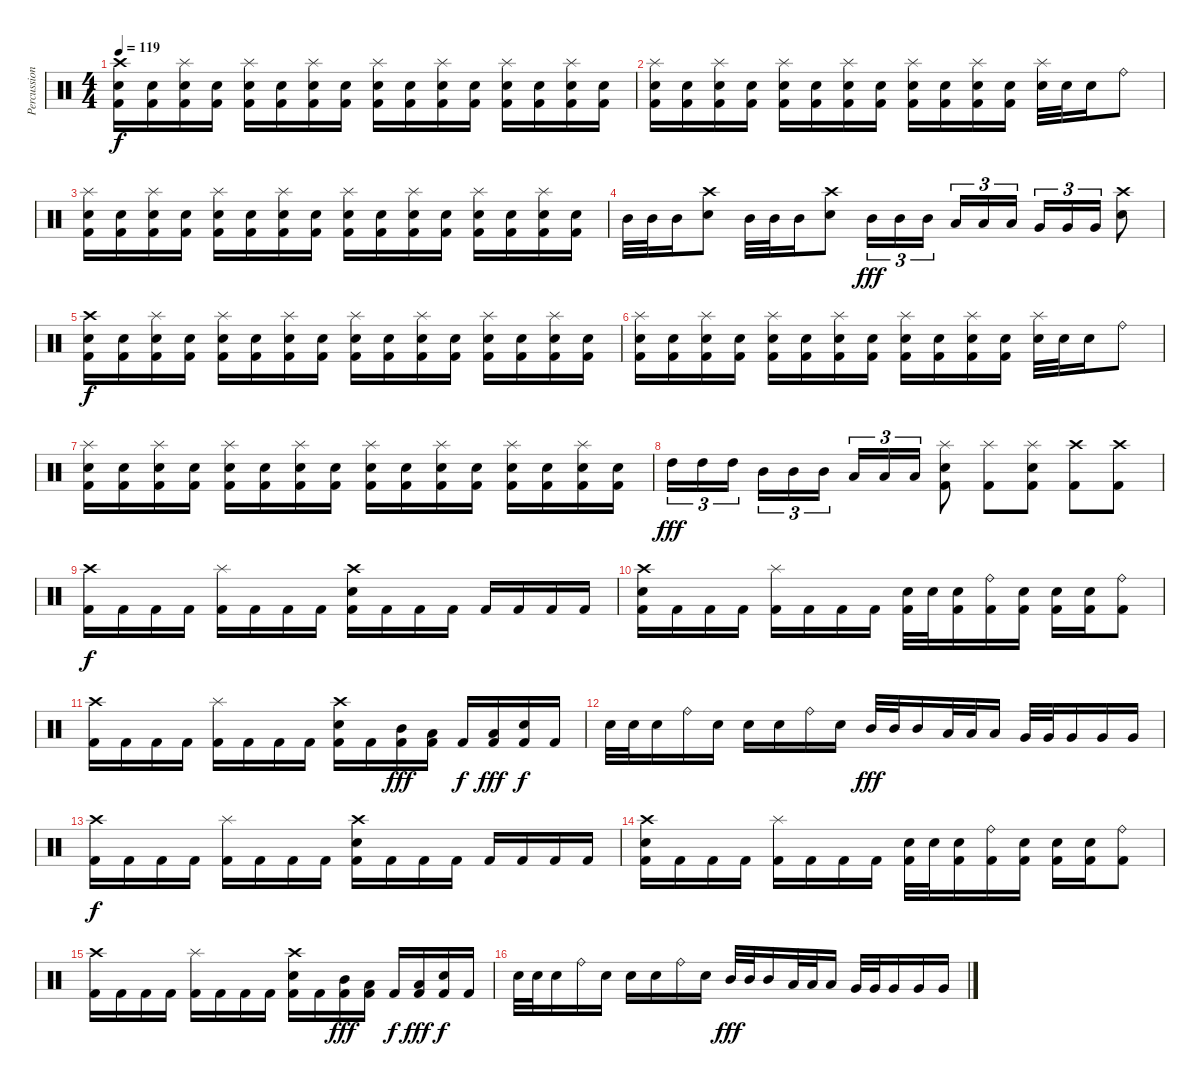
\track ("Percussion" "Percussion") {instrument percussion}
\staff {score}
\articulation defaults
\ts (4 4)
\tempo 119
\clef neutral
\ks c
("Crash high (hit)" "Electric Snare (hit)" "Kick (hit) 2").16{dy f} ("Electric Snare (hit)" "Kick (hit) 2").16 ("Splash (hit)" "Electric Snare (hit)" "Kick (hit) 2").16 ("Electric Snare (hit)" "Kick (hit) 2").16 ("Splash (hit)" "Electric Snare (hit)" "Kick (hit) 2").16 ("Electric Snare (hit)" "Kick (hit) 2").16 ("Splash (hit)" "Electric Snare (hit)" "Kick (hit) 2").16 ("Electric Snare (hit)" "Kick (hit) 2").16 ("Splash (hit)" "Electric Snare (hit)" "Kick (hit) 2").16 ("Electric Snare (hit)" "Kick (hit) 2").16 ("Splash (hit)" "Electric Snare (hit)" "Kick (hit) 2").16 ("Electric Snare (hit)" "Kick (hit) 2").16 ("Splash (hit)" "Electric Snare (hit)" "Kick (hit) 2").16 ("Electric Snare (hit)" "Kick (hit) 2").16 ("Splash (hit)" "Electric Snare (hit)" "Kick (hit) 2").16 ("Electric Snare (hit)" "Kick (hit) 2").16 |
("Splash (hit)" "Electric Snare (hit)" "Kick (hit) 2").16 ("Electric Snare (hit)" "Kick (hit) 2").16 ("Splash (hit)" "Electric Snare (hit)" "Kick (hit) 2").16 ("Electric Snare (hit)" "Kick (hit) 2").16 ("Splash (hit)" "Electric Snare (hit)" "Kick (hit) 2").16 ("Electric Snare (hit)" "Kick (hit) 2").16 ("Splash (hit)" "Electric Snare (hit)" "Kick (hit) 2").16 ("Electric Snare (hit)" "Kick (hit) 2").16 ("Splash (hit)" "Electric Snare (hit)" "Kick (hit) 2").16 ("Electric Snare (hit)" "Kick (hit) 2").16 ("Splash (hit)" "Electric Snare (hit)" "Kick (hit) 2").16 ("Electric Snare (hit)" "Kick (hit) 2").16 ("Splash (hit)" "Electric Snare (hit)").32 "Electric Snare (hit)".32 "Electric Snare (hit)".16 "Ride (bell)".8 |
("Splash (hit)" "Electric Snare (hit)" "Kick (hit) 2").16 ("Electric Snare (hit)" "Kick (hit) 2").16 ("Splash (hit)" "Electric Snare (hit)" "Kick (hit) 2").16 ("Electric Snare (hit)" "Kick (hit) 2").16 ("Splash (hit)" "Electric Snare (hit)" "Kick (hit) 2").16 ("Electric Snare (hit)" "Kick (hit) 2").16 ("Splash (hit)" "Electric Snare (hit)" "Kick (hit) 2").16 ("Electric Snare (hit)" "Kick (hit) 2").16 ("Splash (hit)" "Electric Snare (hit)" "Kick (hit) 2").16 ("Electric Snare (hit)" "Kick (hit) 2").16 ("Splash (hit)" "Electric Snare (hit)" "Kick (hit) 2").16 ("Electric Snare (hit)" "Kick (hit) 2").16 ("Splash (hit)" "Electric Snare (hit)" "Kick (hit) 2").16 ("Electric Snare (hit)" "Kick (hit) 2").16 ("Splash (hit)" "Electric Snare (hit)" "Kick (hit) 2").16 ("Electric Snare (hit)" "Kick (hit) 2").16 |
"Mid Tom (hit)".32 "Mid Tom (hit)".32 "Mid Tom (hit)".16 ("Crash high (hit)" "Electric Snare (hit)").8 "Mid Tom (hit)".32 "Mid Tom (hit)".32 "Mid Tom (hit)".16 ("Crash high (hit)" "Electric Snare (hit)").8 "Mid Tom (hit)".16{tu (3 2) dy fff} "Mid Tom (hit)".16{tu (3 2)} "Mid Tom (hit)".16{tu (3 2)} "Low Tom (hit)".16{tu (3 2)} "Low Tom (hit)".16{tu (3 2)} "Low Tom (hit)".16{tu (3 2)} "Very Low Tom (hit)".16{tu (3 2)} "Very Low Tom (hit)".16{tu (3 2)} "Very Low Tom (hit)".16{tu (3 2)} ("Crash high (hit)" "Electric Snare (hit)").8 |
("Crash high (hit)" "Electric Snare (hit)" "Kick (hit) 2").16{dy f} ("Electric Snare (hit)" "Kick (hit) 2").16 ("Splash (hit)" "Electric Snare (hit)" "Kick (hit) 2").16 ("Electric Snare (hit)" "Kick (hit) 2").16 ("Splash (hit)" "Electric Snare (hit)" "Kick (hit) 2").16 ("Electric Snare (hit)" "Kick (hit) 2").16 ("Splash (hit)" "Electric Snare (hit)" "Kick (hit) 2").16 ("Electric Snare (hit)" "Kick (hit) 2").16 ("Splash (hit)" "Electric Snare (hit)" "Kick (hit) 2").16 ("Electric Snare (hit)" "Kick (hit) 2").16 ("Splash (hit)" "Electric Snare (hit)" "Kick (hit) 2").16 ("Electric Snare (hit)" "Kick (hit) 2").16 ("Splash (hit)" "Electric Snare (hit)" "Kick (hit) 2").16 ("Electric Snare (hit)" "Kick (hit) 2").16 ("Splash (hit)" "Electric Snare (hit)" "Kick (hit) 2").16 ("Electric Snare (hit)" "Kick (hit) 2").16 |
("Splash (hit)" "Electric Snare (hit)" "Kick (hit) 2").16 ("Electric Snare (hit)" "Kick (hit) 2").16 ("Splash (hit)" "Electric Snare (hit)" "Kick (hit) 2").16 ("Electric Snare (hit)" "Kick (hit) 2").16 ("Splash (hit)" "Electric Snare (hit)" "Kick (hit) 2").16 ("Electric Snare (hit)" "Kick (hit) 2").16 ("Splash (hit)" "Electric Snare (hit)" "Kick (hit) 2").16 ("Electric Snare (hit)" "Kick (hit) 2").16 ("Splash (hit)" "Electric Snare (hit)" "Kick (hit) 2").16 ("Electric Snare (hit)" "Kick (hit) 2").16 ("Splash (hit)" "Electric Snare (hit)" "Kick (hit) 2").16 ("Electric Snare (hit)" "Kick (hit) 2").16 ("Splash (hit)" "Electric Snare (hit)").32 "Electric Snare (hit)".32 "Electric Snare (hit)".16 "Ride (bell)".8 |
("Splash (hit)" "Electric Snare (hit)" "Kick (hit) 2").16 ("Electric Snare (hit)" "Kick (hit) 2").16 ("Splash (hit)" "Electric Snare (hit)" "Kick (hit) 2").16 ("Electric Snare (hit)" "Kick (hit) 2").16 ("Splash (hit)" "Electric Snare (hit)" "Kick (hit) 2").16 ("Electric Snare (hit)" "Kick (hit) 2").16 ("Splash (hit)" "Electric Snare (hit)" "Kick (hit) 2").16 ("Electric Snare (hit)" "Kick (hit) 2").16 ("Splash (hit)" "Electric Snare (hit)" "Kick (hit) 2").16 ("Electric Snare (hit)" "Kick (hit) 2").16 ("Splash (hit)" "Electric Snare (hit)" "Kick (hit) 2").16 ("Electric Snare (hit)" "Kick (hit) 2").16 ("Splash (hit)" "Electric Snare (hit)" "Kick (hit) 2").16 ("Electric Snare (hit)" "Kick (hit) 2").16 ("Splash (hit)" "Electric Snare (hit)" "Kick (hit) 2").16 ("Electric Snare (hit)" "Kick (hit) 2").16 |
"High Tom (hit)".16{tu (3 2) dy fff} "High Tom (hit)".16{tu (3 2)} "High Tom (hit)".16{tu (3 2)} "Mid Tom (hit)".16{tu (3 2)} "Mid Tom (hit)".16{tu (3 2)} "Mid Tom (hit)".16{tu (3 2)} "Low Tom (hit)".16{tu (3 2)} "Low Tom (hit)".16{tu (3 2)} "Low Tom (hit)".16{tu (3 2)} ("Splash (hit)" "Electric Snare (hit)" "Kick (hit) 2").8 ("Splash (hit)" "Kick (hit) 2").8 ("Splash (hit)" "Electric Snare (hit)" "Kick (hit) 2").8 ("Crash high (hit)" "Kick (hit) 2").8 ("Crash high (hit)" "Kick (hit) 2").8 |
("Crash high (hit)" "Kick (hit) 2").16{dy f} "Kick (hit) 2".16 "Kick (hit) 2".16 "Kick (hit) 2".16 ("Splash (hit)" "Kick (hit) 2").16 "Kick (hit) 2".16 "Kick (hit) 2".16 "Kick (hit) 2".16 ("Crash high (hit)" "Electric Snare (hit)" "Kick (hit) 2").16 "Kick (hit) 2".16 "Kick (hit) 2".16 "Kick (hit) 2".16 "Kick (hit) 2".16 "Kick (hit) 2".16 "Kick (hit) 2".16 "Kick (hit) 2".16 |
("Crash high (hit)" "Electric Snare (hit)" "Kick (hit) 2").16 "Kick (hit) 2".16 "Kick (hit) 2".16 "Kick (hit) 2".16 ("Splash (hit)" "Kick (hit) 2").16 "Kick (hit) 2".16 "Kick (hit) 2".16 "Kick (hit) 2".16 ("Electric Snare (hit)" "Kick (hit) 2").32 "Electric Snare (hit)".32 ("Electric Snare (hit)" "Kick (hit) 2").16 ("Ride (bell)" "Kick (hit) 2").16 ("Electric Snare (hit)" "Kick (hit) 2").16 ("Electric Snare (hit)" "Kick (hit) 2").16 ("Electric Snare (hit)" "Kick (hit) 2").16 ("Ride (bell)" "Kick (hit) 2").8 |
("Crash high (hit)" "Kick (hit) 2").16 "Kick (hit) 2".16 "Kick (hit) 2".16 "Kick (hit) 2".16 ("Splash (hit)" "Kick (hit) 2").16 "Kick (hit) 2".16 "Kick (hit) 2".16 "Kick (hit) 2".16 ("Crash high (hit)" "Electric Snare (hit)" "Kick (hit) 2").16 "Kick (hit) 2".16 ("Mid Tom (hit)" "Kick (hit) 2").16{dy fff} ("Low Tom (hit)" "Kick (hit) 2").16 "Kick (hit) 2".16{dy f} ("Low Tom (hit)" "Kick (hit) 2").16{dy fff} ("Electric Snare (hit)" "Kick (hit) 2").16{dy f} "Kick (hit) 2".16 |
"Electric Snare (hit)".32 "Electric Snare (hit)".32 "Electric Snare (hit)".16 "Ride (bell)".16 "Electric Snare (hit)".16 "Electric Snare (hit)".16 "Electric Snare (hit)".16 "Ride (bell)".16 "Electric Snare (hit)".16 "Mid Tom (hit)".32{dy fff} "Mid Tom (hit)".32 "Mid Tom (hit)".16 "Low Tom (hit)".32 "Low Tom (hit)".32 "Low Tom (hit)".16 "Very Low Tom (hit)".32 "Very Low Tom (hit)".32 "Very Low Tom (hit)".16 "Very Low Tom (hit)".16 "Very Low Tom (hit)".16 |
("Crash high (hit)" "Kick (hit) 2").16{dy f} "Kick (hit) 2".16 "Kick (hit) 2".16 "Kick (hit) 2".16 ("Splash (hit)" "Kick (hit) 2").16 "Kick (hit) 2".16 "Kick (hit) 2".16 "Kick (hit) 2".16 ("Crash high (hit)" "Electric Snare (hit)" "Kick (hit) 2").16 "Kick (hit) 2".16 "Kick (hit) 2".16 "Kick (hit) 2".16 "Kick (hit) 2".16 "Kick (hit) 2".16 "Kick (hit) 2".16 "Kick (hit) 2".16 |
("Crash high (hit)" "Electric Snare (hit)" "Kick (hit) 2").16 "Kick (hit) 2".16 "Kick (hit) 2".16 "Kick (hit) 2".16 ("Splash (hit)" "Kick (hit) 2").16 "Kick (hit) 2".16 "Kick (hit) 2".16 "Kick (hit) 2".16 ("Electric Snare (hit)" "Kick (hit) 2").32 "Electric Snare (hit)".32 ("Electric Snare (hit)" "Kick (hit) 2").16 ("Ride (bell)" "Kick (hit) 2").16 ("Electric Snare (hit)" "Kick (hit) 2").16 ("Electric Snare (hit)" "Kick (hit) 2").16 ("Electric Snare (hit)" "Kick (hit) 2").16 ("Ride (bell)" "Kick (hit) 2").8 |
("Crash high (hit)" "Kick (hit) 2").16 "Kick (hit) 2".16 "Kick (hit) 2".16 "Kick (hit) 2".16 ("Splash (hit)" "Kick (hit) 2").16 "Kick (hit) 2".16 "Kick (hit) 2".16 "Kick (hit) 2".16 ("Crash high (hit)" "Electric Snare (hit)" "Kick (hit) 2").16 "Kick (hit) 2".16 ("Mid Tom (hit)" "Kick (hit) 2").16{dy fff} ("Low Tom (hit)" "Kick (hit) 2").16 "Kick (hit) 2".16{dy f} ("Low Tom (hit)" "Kick (hit) 2").16{dy fff} ("Electric Snare (hit)" "Kick (hit) 2").16{dy f} "Kick (hit) 2".16 |
"Electric Snare (hit)".32 "Electric Snare (hit)".32 "Electric Snare (hit)".16 "Ride (bell)".16 "Electric Snare (hit)".16 "Electric Snare (hit)".16 "Electric Snare (hit)".16 "Ride (bell)".16 "Electric Snare (hit)".16 "Mid Tom (hit)".32{dy fff} "Mid Tom (hit)".32 "Mid Tom (hit)".16 "Low Tom (hit)".32 "Low Tom (hit)".32 "Low Tom (hit)".16 "Very Low Tom (hit)".32 "Very Low Tom (hit)".32 "Very Low Tom (hit)".16 "Very Low Tom (hit)".16 "Very Low Tom (hit)".16
